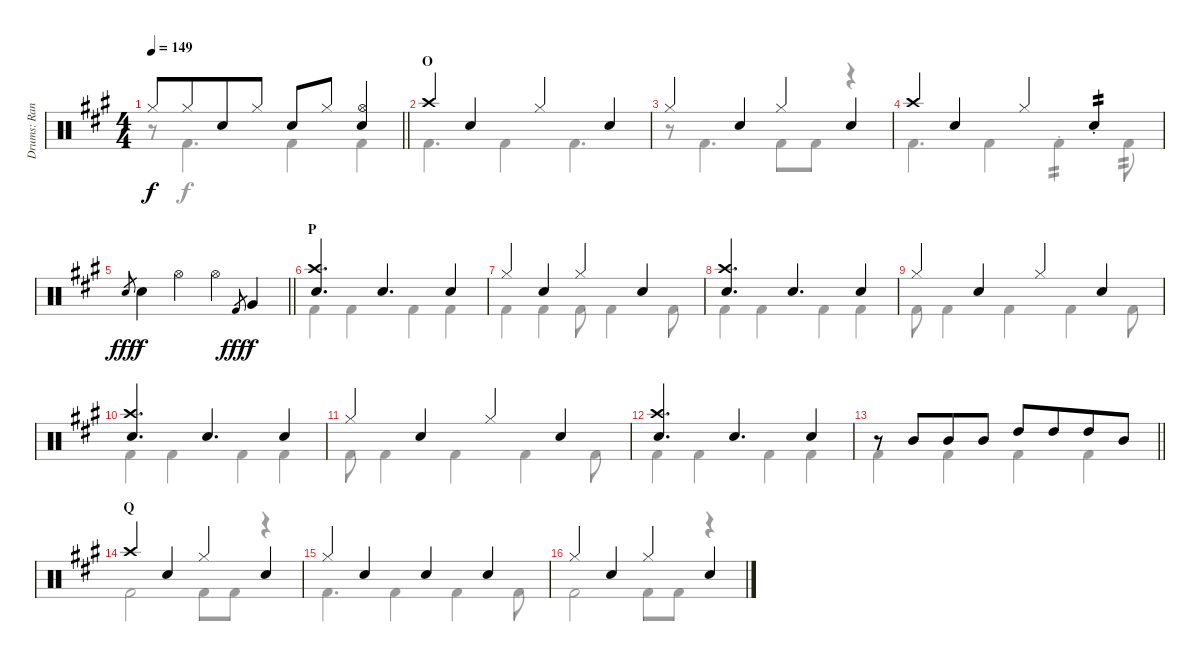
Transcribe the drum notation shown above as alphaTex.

\track ("Drums: Randy" "Drums: Ran") {instrument percussion}
\staff {score}
\articulation defaults
\voice
\ts (4 4)
\tempo 149
\clef neutral
\barLineRight lightlight
\ks a "Hi-Hat (closed)".8{dy f} "Hi-Hat (closed)".8{beam merge} "Snare (hit) 2".8 "Hi-Hat (closed)".8 "Snare (hit) 2".8 "Hi-Hat (closed)".8
("Hi-Hat (open)" "Snare (hit) 2").4 |
\section ("" "O")
"Crash high (hit)".4 "Snare (hit) 2".4 "Hi-Hat (closed)".4 "Snare (hit) 2".4 |
"Hi-Hat (closed)".4 "Snare (hit) 2".4 "Hi-Hat (closed)".4 "Snare (hit) 2".4 |
"Crash high (hit)".4 "Snare (hit) 2".4 "Hi-Hat (closed)".4 "Snare (hit) 2"{st}.4{tp 2} |
\barLineRight lightlight "Snare (hit) 2".8{gr dy fff} "Snare (hit) 2".4{dy f} "Hi-Hat (open)".4 "Hi-Hat (open)".4 "Kick (hit) 2".8{gr dy fff} "Very Low Tom (hit)".4{dy f}
|
\section ("" "P")
("Crash high (hit)" "Snare (hit) 2").4{d} "Snare (hit) 2".4{d} "Snare (hit) 2".4 |
"Hi-Hat (closed)".4 "Snare (hit) 2".4 "Hi-Hat (closed)".4 "Snare (hit) 2".4 |
("Crash high (hit)" "Snare (hit) 2").4{d} "Snare (hit) 2".4{d} "Snare (hit) 2".4 |
"Hi-Hat (closed)".4 "Snare (hit) 2".4 "Hi-Hat (closed)".4 "Snare (hit) 2".4 |
("Crash high (hit)" "Snare (hit) 2").4{d} "Snare (hit) 2".4{d} "Snare (hit) 2".4 |
"Hi-Hat (closed)".4 "Snare (hit) 2".4 "Hi-Hat (closed)".4 "Snare (hit) 2".4 |
("Crash high (hit)" "Snare (hit) 2").4{d} "Snare (hit) 2".4{d} "Snare (hit) 2".4 |
\barLineRight lightlight
r.8 "Mid Tom (hit)".8{beam merge} "Mid Tom (hit)".8 "Mid Tom (hit)".8 "High Tom (hit)".8 "High Tom (hit)".8{beam merge} "High Tom (hit)".8 "Mid Tom (hit)".8 |
\section ("" "Q")
"Crash high (hit)".4 "Snare (hit) 2".4 "Hi-Hat (closed)".4 "Snare (hit) 2".4 |
"Hi-Hat (closed)".4 "Snare (hit) 2".4 "Snare (hit) 2".4 "Snare (hit) 2".4 |
"Hi-Hat (closed)".4 "Snare (hit) 2".4 "Hi-Hat (closed)".4 "Snare (hit) 2".4
\voice
\clef neutral
\ottava regular
\simile none
\barLineRight lightlight
\ks a
r.8{dy f} "Kick (hit) 2".4{d} "Kick (hit) 2".4 "Kick (hit) 2".4 |
"Kick (hit) 2".4{d} "Kick (hit) 2".4 "Kick (hit) 2".4{d} |
r.8 "Kick (hit) 2".4{d} "Kick (hit) 2".8 "Kick (hit) 2".8 r.4 |
"Kick (hit) 2".4{d} "Kick (hit) 2".4 "Kick (hit) 2"{st}.4{tp 2} "Kick (hit) 2".8{tp 2} |
\barLineRight lightlight
|
"Kick (hit) 2".4 "Kick (hit) 2".4 "Kick (hit) 2".4 "Kick (hit) 2".4 |
"Kick (hit) 2".4 "Kick (hit) 2".4 "Kick (hit) 2".8 "Kick (hit) 2".4 "Kick (hit) 2".8 |
"Kick (hit) 2".4 "Kick (hit) 2".4 "Kick (hit) 2".4 "Kick (hit) 2".4 |
"Kick (hit) 2".8 "Kick (hit) 2".4 "Kick (hit) 2".4 "Kick (hit) 2".4 "Kick (hit) 2".8 |
"Kick (hit) 2".4 "Kick (hit) 2".4 "Kick (hit) 2".4 "Kick (hit) 2".4 |
"Kick (hit) 2".8 "Kick (hit) 2".4 "Kick (hit) 2".4 "Kick (hit) 2".4 "Kick (hit) 2".8 |
"Kick (hit) 2".4 "Kick (hit) 2".4 "Kick (hit) 2".4 "Kick (hit) 2".4 |
\barLineRight lightlight "Kick (hit) 2".4 "Kick (hit) 2".4 "Kick (hit) 2".4 "Kick (hit) 2".4
|
"Kick (hit) 2".2 "Kick (hit) 2".8 "Kick (hit) 2".8 r.4 |
"Kick (hit) 2".4{d} "Kick (hit) 2".4 "Kick (hit) 2".4 "Kick (hit) 2".8 |
"Kick (hit) 2".2 "Kick (hit) 2".8 "Kick (hit) 2".8 r.4
